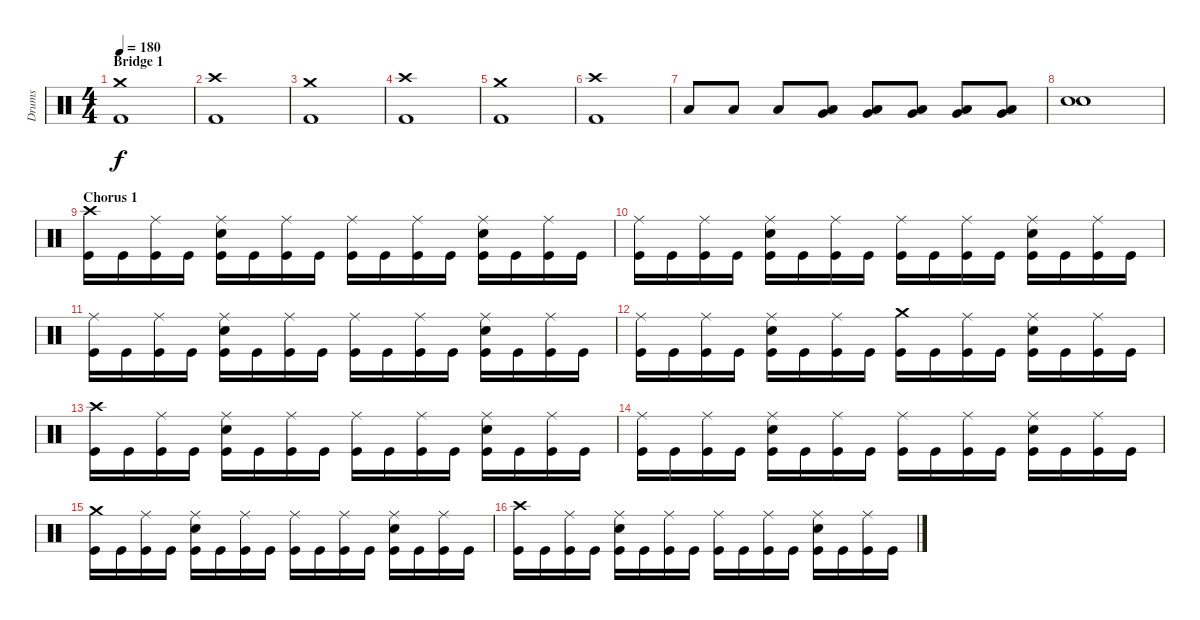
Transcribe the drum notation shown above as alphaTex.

\track ("Drums" "Drums") {instrument percussion}
\staff {score}
\articulation defaults
\ts (4 4)
\section ("" "Bridge 1")
\tempo 180
\clef neutral
\ks c
("Crash medium (hit)" "Kick (hit) 2").1{dy f} |
("Crash high (hit)" "Kick (hit) 2").1 |
("Crash medium (hit)" "Kick (hit) 2").1 |
("Crash high (hit)" "Kick (hit) 2").1 |
("Crash medium (hit)" "Kick (hit) 2").1 |
("Crash high (hit)" "Kick (hit) 2").1 |
"Low Floor Tom (hit)".8 "Low Floor Tom (hit)".8 "Low Floor Tom (hit)".8 ("Very Low Tom (hit)" "Low Floor Tom (hit)").8 ("Very Low Tom (hit)" "Low Floor Tom (hit)").8 ("Very Low Tom (hit)" "Low Floor Tom (hit)").8 ("Very Low Tom (hit)" "Low Floor Tom (hit)").8 ("Very Low Tom (hit)" "Low Floor Tom (hit)").8 |
("Electric Snare (hit)" "Snare (hit) 2").1 |
\section ("" "Chorus 1")
("Crash high (hit)" "Kick (hit)").16 "Kick (hit)".16 ("Ride (middle)" "Kick (hit)").16 "Kick (hit)".16 ("Ride (middle)" "Snare (hit) 2" "Kick (hit)").16 "Kick (hit)".16 ("Ride (middle)" "Kick (hit)").16 "Kick (hit)".16 ("Ride (middle)" "Kick (hit)").16 "Kick (hit)".16 ("Ride (middle)" "Kick (hit)").16 "Kick (hit)".16 ("Ride (middle)" "Snare (hit) 2" "Kick (hit)").16 "Kick (hit)".16 ("Ride (middle)" "Kick (hit)").16 "Kick (hit)".16 |
("Ride (middle)" "Kick (hit)").16 "Kick (hit)".16 ("Ride (middle)" "Kick (hit)").16 "Kick (hit)".16 ("Ride (middle)" "Snare (hit) 2" "Kick (hit)").16 "Kick (hit)".16 ("Ride (middle)" "Kick (hit)").16 "Kick (hit)".16 ("Ride (middle)" "Kick (hit)").16 "Kick (hit)".16 ("Ride (middle)" "Kick (hit)").16 "Kick (hit)".16 ("Ride (middle)" "Snare (hit) 2" "Kick (hit)").16 "Kick (hit)".16 ("Ride (middle)" "Kick (hit)").16 "Kick (hit)".16 |
("Ride (middle)" "Kick (hit)").16 "Kick (hit)".16 ("Ride (middle)" "Kick (hit)").16 "Kick (hit)".16 ("Ride (middle)" "Snare (hit) 2" "Kick (hit)").16 "Kick (hit)".16 ("Ride (middle)" "Kick (hit)").16 "Kick (hit)".16 ("Ride (middle)" "Kick (hit)").16 "Kick (hit)".16 ("Ride (middle)" "Kick (hit)").16 "Kick (hit)".16 ("Ride (middle)" "Snare (hit) 2" "Kick (hit)").16 "Kick (hit)".16 ("Ride (middle)" "Kick (hit)").16 "Kick (hit)".16 |
("Ride (middle)" "Kick (hit)").16 "Kick (hit)".16 ("Ride (middle)" "Kick (hit)").16 "Kick (hit)".16 ("Ride (middle)" "Snare (hit) 2" "Kick (hit)").16 "Kick (hit)".16 ("Ride (middle)" "Kick (hit)").16 "Kick (hit)".16 ("Crash medium (hit)" "Kick (hit)").16 "Kick (hit)".16 ("Ride (middle)" "Kick (hit)").16 "Kick (hit)".16 ("Ride (middle)" "Snare (hit) 2" "Kick (hit)").16 "Kick (hit)".16 ("Ride (middle)" "Kick (hit)").16 "Kick (hit)".16 |
("Crash high (hit)" "Kick (hit)").16 "Kick (hit)".16 ("Ride (middle)" "Kick (hit)").16 "Kick (hit)".16 ("Ride (middle)" "Snare (hit) 2" "Kick (hit)").16 "Kick (hit)".16 ("Ride (middle)" "Kick (hit)").16 "Kick (hit)".16 ("Ride (middle)" "Kick (hit)").16 "Kick (hit)".16 ("Ride (middle)" "Kick (hit)").16 "Kick (hit)".16 ("Ride (middle)" "Snare (hit) 2" "Kick (hit)").16 "Kick (hit)".16 ("Ride (middle)" "Kick (hit)").16 "Kick (hit)".16 |
("Ride (middle)" "Kick (hit)").16 "Kick (hit)".16 ("Ride (middle)" "Kick (hit)").16 "Kick (hit)".16 ("Ride (middle)" "Snare (hit) 2" "Kick (hit)").16 "Kick (hit)".16 ("Ride (middle)" "Kick (hit)").16 "Kick (hit)".16 ("Ride (middle)" "Kick (hit)").16 "Kick (hit)".16 ("Ride (middle)" "Kick (hit)").16 "Kick (hit)".16 ("Ride (middle)" "Snare (hit) 2" "Kick (hit)").16 "Kick (hit)".16 ("Ride (middle)" "Kick (hit)").16 "Kick (hit)".16 |
("Crash medium (hit)" "Kick (hit)").16 "Kick (hit)".16 ("Ride (middle)" "Kick (hit)").16 "Kick (hit)".16 ("Ride (middle)" "Snare (hit) 2" "Kick (hit)").16 "Kick (hit)".16 ("Ride (middle)" "Kick (hit)").16 "Kick (hit)".16 ("Ride (middle)" "Kick (hit)").16 "Kick (hit)".16 ("Ride (middle)" "Kick (hit)").16 "Kick (hit)".16 ("Ride (middle)" "Snare (hit) 2" "Kick (hit)").16 "Kick (hit)".16 ("Ride (middle)" "Kick (hit)").16 "Kick (hit)".16 |
("Crash high (hit)" "Kick (hit)").16 "Kick (hit)".16 ("Ride (middle)" "Kick (hit)").16 "Kick (hit)".16 ("Ride (middle)" "Snare (hit) 2" "Kick (hit)").16 "Kick (hit)".16 ("Ride (middle)" "Kick (hit)").16 "Kick (hit)".16 ("Ride (middle)" "Kick (hit)").16 "Kick (hit)".16 ("Ride (middle)" "Kick (hit)").16 "Kick (hit)".16 ("Ride (middle)" "Snare (hit) 2" "Kick (hit)").16 "Kick (hit)".16 ("Ride (middle)" "Kick (hit)").16 "Kick (hit)".16
